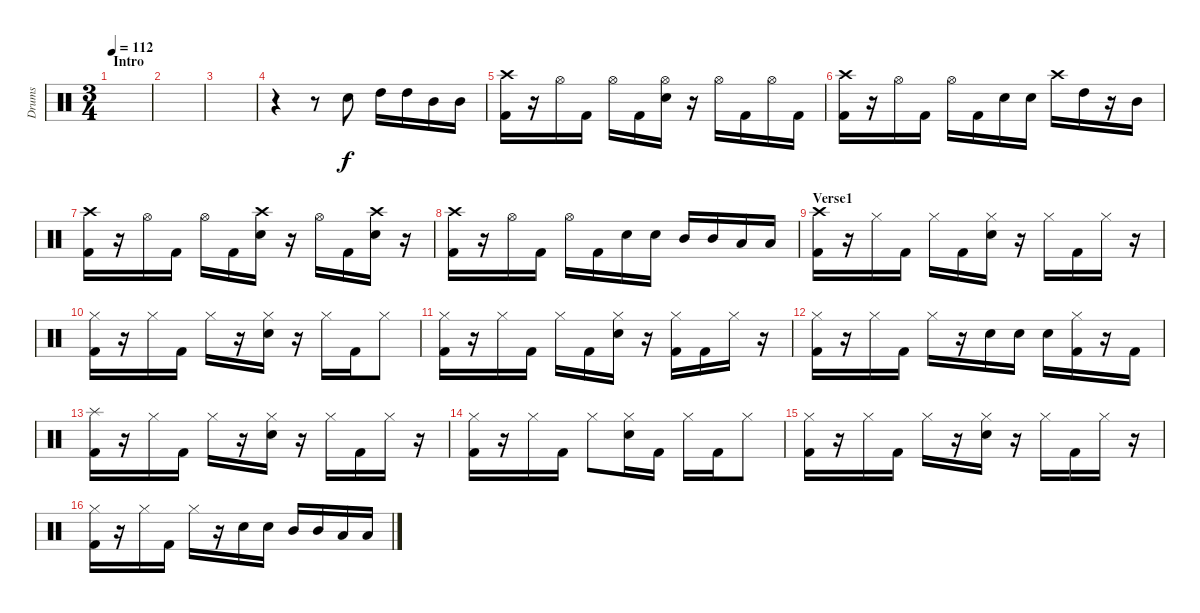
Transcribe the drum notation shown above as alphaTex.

\track ("Drums" "Drums") {instrument percussion}
\staff {score}
\articulation defaults
\ts (3 4)
\section ("" "Intro")
\tempo 112
\clef neutral
\ks c
|
|
|
r.4 r.8 "Electric Snare (hit)".8 "High Tom (hit)".16{dy f} "High Tom (hit)".16 "Mid Tom (hit)".16 "Mid Tom (hit)".16 |
("Crash high (hit)" "Kick (hit) 2").16 r.16 "Hi-Hat (open)".16 "Kick (hit) 2".16 "Hi-Hat (open)".16 "Kick (hit) 2".16 ("Hi-Hat (open)" "Electric Snare (hit)").16 r.16 "Hi-Hat (open)".16 "Kick (hit) 2".16 "Hi-Hat (open)".16 "Kick (hit) 2".16 |
("Crash high (hit)" "Kick (hit) 2").16 r.16 "Hi-Hat (open)".16 "Kick (hit) 2".16 "Hi-Hat (open)".16 "Kick (hit) 2".16 "Electric Snare (hit)".16 "Electric Snare (hit)".16 "Crash high (hit)".16 "High Tom (hit)".16 r.16 "Mid Tom (hit)".16 |
("Crash high (hit)" "Kick (hit) 2").16 r.16 "Hi-Hat (open)".16 "Kick (hit) 2".16 "Hi-Hat (open)".16 "Kick (hit) 2".16 ("Crash high (hit)" "Electric Snare (hit)").16 r.16 "Hi-Hat (open)".16 "Kick (hit) 2".16 ("Crash high (hit)" "Electric Snare (hit)").16 r.16 |
("Crash high (hit)" "Kick (hit) 2").16 r.16 "Hi-Hat (open)".16 "Kick (hit) 2".16 "Hi-Hat (open)".16 "Kick (hit) 2".16 "Electric Snare (hit)".16 "Electric Snare (hit)".16 "Mid Tom (hit)".16 "Mid Tom (hit)".16 "Low Tom (hit)".16 "Low Tom (hit)".16 |
\section ("" "Verse1")
("Crash high (hit)" "Kick (hit) 2").16 r.16 "Hi-Hat (closed)".16 "Kick (hit) 2".16 "Hi-Hat (closed)".16 "Kick (hit) 2".16 ("Hi-Hat (closed)" "Electric Snare (hit)").16 r.16 "Hi-Hat (closed)".16 "Kick (hit) 2".16 "Hi-Hat (closed)".16 r.16 |
("Hi-Hat (closed)" "Kick (hit) 2").16 r.16 "Hi-Hat (closed)".16 "Kick (hit) 2".16 "Hi-Hat (closed)".16 r.16 ("Hi-Hat (closed)" "Electric Snare (hit)").16 r.16 "Hi-Hat (closed)".16 "Kick (hit) 2".16 "Hi-Hat (closed)".8 |
("Hi-Hat (closed)" "Kick (hit) 2").16 r.16 "Hi-Hat (closed)".16 "Kick (hit) 2".16 "Hi-Hat (closed)".16 "Kick (hit) 2".16 ("Hi-Hat (closed)" "Electric Snare (hit)").16 r.16 ("Hi-Hat (closed)" "Kick (hit) 2").16 "Kick (hit) 2".16 "Hi-Hat (closed)".16 r.16 |
("Hi-Hat (closed)" "Kick (hit) 2").16 r.16 "Hi-Hat (closed)".16 "Kick (hit) 2".16 "Hi-Hat (closed)".16 r.16 "Electric Snare (hit)".16 "Electric Snare (hit)".16 "Electric Snare (hit)".16 ("Hi-Hat (closed)" "Kick (hit) 2").16 r.16 "Kick (hit) 2".16 |
("Splash (hit)" "Kick (hit) 2").16 r.16 "Hi-Hat (closed)".16 "Kick (hit) 2".16 "Hi-Hat (closed)".16 r.16 ("Hi-Hat (closed)" "Electric Snare (hit)").16 r.16 "Hi-Hat (closed)".16 "Kick (hit) 2".16 "Hi-Hat (closed)".16 r.16 |
("Hi-Hat (closed)" "Kick (hit) 2").16 r.16 "Hi-Hat (closed)".16 "Kick (hit) 2".16 "Hi-Hat (closed)".8 ("Hi-Hat (closed)" "Electric Snare (hit)").16 "Kick (hit) 2".16 "Hi-Hat (closed)".16 "Kick (hit) 2".16 "Hi-Hat (closed)".8 |
("Hi-Hat (closed)" "Kick (hit) 2").16 r.16 "Hi-Hat (closed)".16 "Kick (hit) 2".16 "Hi-Hat (closed)".16 r.16 ("Hi-Hat (closed)" "Electric Snare (hit)").16 r.16 "Hi-Hat (closed)".16 "Kick (hit) 2".16 "Hi-Hat (closed)".16 r.16 |
("Hi-Hat (closed)" "Kick (hit) 2").16 r.16 "Hi-Hat (closed)".16 "Kick (hit) 2".16 "Hi-Hat (closed)".16 r.16 "Electric Snare (hit)".16 "Electric Snare (hit)".16 "Mid Tom (hit)".16 "Mid Tom (hit)".16 "Low Tom (hit)".16 "Low Tom (hit)".16
